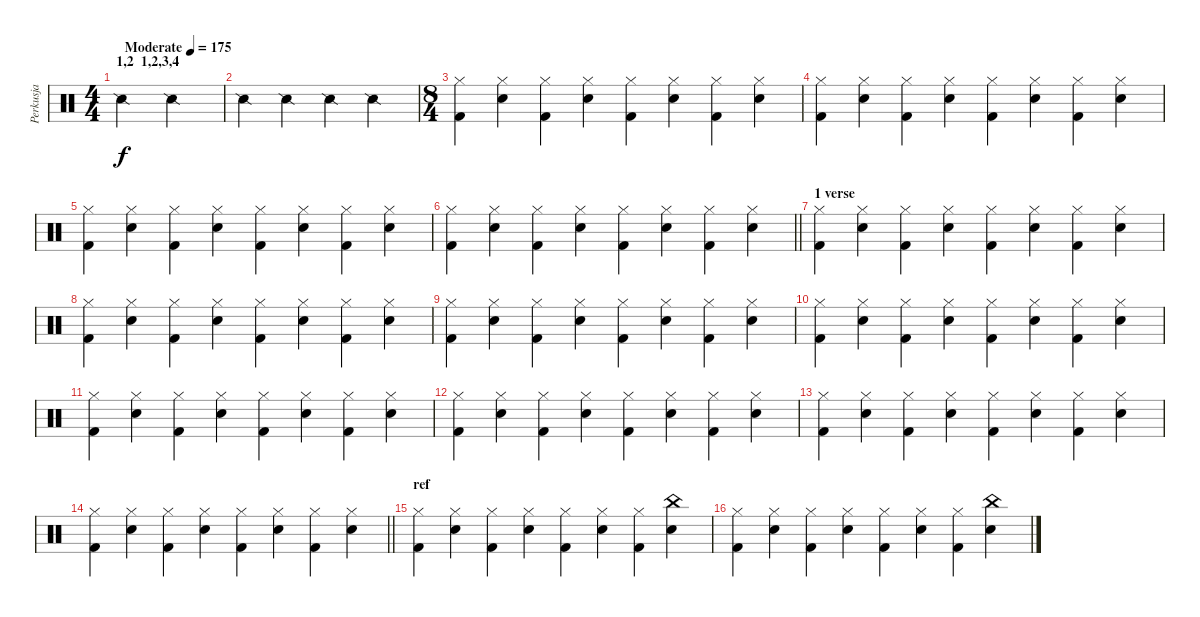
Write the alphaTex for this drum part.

\track ("Perkusja" "Perkusja") {instrument percussion}
\staff {score}
\articulation defaults
\ts (4 4)
\section ("" "1,2  1,2,3,4")
\tempo (175 "Moderate")
\clef neutral
\ks c "Snare (side stick) 2".2{dy f} "Snare (side stick) 2".2
|
"Snare (side stick) 2".4 "Snare (side stick) 2".4 "Snare (side stick) 2".4 "Snare (side stick) 2".4 |
\ts (8 4)
("Hi-Hat (closed)" "Kick (hit) 2").4 ("Hi-Hat (closed)" "Electric Snare (hit)").4 ("Hi-Hat (closed)" "Kick (hit) 2").4 ("Hi-Hat (closed)" "Electric Snare (hit)").4 ("Hi-Hat (closed)" "Kick (hit) 2").4 ("Hi-Hat (closed)" "Electric Snare (hit)").4 ("Hi-Hat (closed)" "Kick (hit) 2").4 ("Hi-Hat (closed)" "Electric Snare (hit)").4 |
("Hi-Hat (closed)" "Kick (hit) 2").4 ("Hi-Hat (closed)" "Electric Snare (hit)").4 ("Hi-Hat (closed)" "Kick (hit) 2").4 ("Hi-Hat (closed)" "Electric Snare (hit)").4 ("Hi-Hat (closed)" "Kick (hit) 2").4 ("Hi-Hat (closed)" "Electric Snare (hit)").4 ("Hi-Hat (closed)" "Kick (hit) 2").4 ("Hi-Hat (closed)" "Electric Snare (hit)").4 |
("Hi-Hat (closed)" "Kick (hit) 2").4 ("Hi-Hat (closed)" "Electric Snare (hit)").4 ("Hi-Hat (closed)" "Kick (hit) 2").4 ("Hi-Hat (closed)" "Electric Snare (hit)").4 ("Hi-Hat (closed)" "Kick (hit) 2").4 ("Hi-Hat (closed)" "Electric Snare (hit)").4 ("Hi-Hat (closed)" "Kick (hit) 2").4 ("Hi-Hat (closed)" "Electric Snare (hit)").4 |
\barLineRight lightlight
("Hi-Hat (closed)" "Kick (hit) 2").4 ("Hi-Hat (closed)" "Electric Snare (hit)").4 ("Hi-Hat (closed)" "Kick (hit) 2").4 ("Hi-Hat (closed)" "Electric Snare (hit)").4 ("Hi-Hat (closed)" "Kick (hit) 2").4 ("Hi-Hat (closed)" "Electric Snare (hit)").4 ("Hi-Hat (closed)" "Kick (hit) 2").4 ("Hi-Hat (closed)" "Electric Snare (hit)").4 |
\section ("" "1 verse")
("Hi-Hat (closed)" "Kick (hit) 2").4 ("Hi-Hat (closed)" "Electric Snare (hit)").4 ("Hi-Hat (closed)" "Kick (hit) 2").4 ("Hi-Hat (closed)" "Electric Snare (hit)").4 ("Hi-Hat (closed)" "Kick (hit) 2").4 ("Hi-Hat (closed)" "Electric Snare (hit)").4 ("Hi-Hat (closed)" "Kick (hit) 2").4 ("Hi-Hat (closed)" "Electric Snare (hit)").4 |
("Hi-Hat (closed)" "Kick (hit) 2").4 ("Hi-Hat (closed)" "Electric Snare (hit)").4 ("Hi-Hat (closed)" "Kick (hit) 2").4 ("Hi-Hat (closed)" "Electric Snare (hit)").4 ("Hi-Hat (closed)" "Kick (hit) 2").4 ("Hi-Hat (closed)" "Electric Snare (hit)").4 ("Hi-Hat (closed)" "Kick (hit) 2").4 ("Hi-Hat (closed)" "Electric Snare (hit)").4 |
("Hi-Hat (closed)" "Kick (hit) 2").4 ("Hi-Hat (closed)" "Electric Snare (hit)").4 ("Hi-Hat (closed)" "Kick (hit) 2").4 ("Hi-Hat (closed)" "Electric Snare (hit)").4 ("Hi-Hat (closed)" "Kick (hit) 2").4 ("Hi-Hat (closed)" "Electric Snare (hit)").4 ("Hi-Hat (closed)" "Kick (hit) 2").4 ("Hi-Hat (closed)" "Electric Snare (hit)").4 |
("Hi-Hat (closed)" "Kick (hit) 2").4 ("Hi-Hat (closed)" "Electric Snare (hit)").4 ("Hi-Hat (closed)" "Kick (hit) 2").4 ("Hi-Hat (closed)" "Electric Snare (hit)").4 ("Hi-Hat (closed)" "Kick (hit) 2").4 ("Hi-Hat (closed)" "Electric Snare (hit)").4 ("Hi-Hat (closed)" "Kick (hit) 2").4 ("Hi-Hat (closed)" "Electric Snare (hit)").4 |
("Hi-Hat (closed)" "Kick (hit) 2").4 ("Hi-Hat (closed)" "Electric Snare (hit)").4 ("Hi-Hat (closed)" "Kick (hit) 2").4 ("Hi-Hat (closed)" "Electric Snare (hit)").4 ("Hi-Hat (closed)" "Kick (hit) 2").4 ("Hi-Hat (closed)" "Electric Snare (hit)").4 ("Hi-Hat (closed)" "Kick (hit) 2").4 ("Hi-Hat (closed)" "Electric Snare (hit)").4 |
("Hi-Hat (closed)" "Kick (hit) 2").4 ("Hi-Hat (closed)" "Electric Snare (hit)").4 ("Hi-Hat (closed)" "Kick (hit) 2").4 ("Hi-Hat (closed)" "Electric Snare (hit)").4 ("Hi-Hat (closed)" "Kick (hit) 2").4 ("Hi-Hat (closed)" "Electric Snare (hit)").4 ("Hi-Hat (closed)" "Kick (hit) 2").4 ("Hi-Hat (closed)" "Electric Snare (hit)").4 |
("Hi-Hat (closed)" "Kick (hit) 2").4 ("Hi-Hat (closed)" "Electric Snare (hit)").4 ("Hi-Hat (closed)" "Kick (hit) 2").4 ("Hi-Hat (closed)" "Electric Snare (hit)").4 ("Hi-Hat (closed)" "Kick (hit) 2").4 ("Hi-Hat (closed)" "Electric Snare (hit)").4 ("Hi-Hat (closed)" "Kick (hit) 2").4 ("Hi-Hat (closed)" "Electric Snare (hit)").4 |
\barLineRight lightlight
("Hi-Hat (closed)" "Kick (hit) 2").4 ("Hi-Hat (closed)" "Electric Snare (hit)").4 ("Hi-Hat (closed)" "Kick (hit) 2").4 ("Hi-Hat (closed)" "Electric Snare (hit)").4 ("Hi-Hat (closed)" "Kick (hit) 2").4 ("Hi-Hat (closed)" "Electric Snare (hit)").4 ("Hi-Hat (closed)" "Kick (hit) 2").4 ("Hi-Hat (closed)" "Electric Snare (hit)").4 |
\section ("" "ref")
("Hi-Hat (closed)" "Kick (hit) 2").4 ("Hi-Hat (closed)" "Electric Snare (hit)").4 ("Hi-Hat (closed)" "Kick (hit) 2").4 ("Hi-Hat (closed)" "Electric Snare (hit)").4 ("Hi-Hat (closed)" "Kick (hit) 2").4 ("Hi-Hat (closed)" "Electric Snare (hit)").4 ("Hi-Hat (closed)" "Kick (hit) 2").4 ("China (hit)" "Electric Snare (hit)").4 |
("Hi-Hat (closed)" "Kick (hit) 2").4 ("Hi-Hat (closed)" "Electric Snare (hit)").4 ("Hi-Hat (closed)" "Kick (hit) 2").4 ("Hi-Hat (closed)" "Electric Snare (hit)").4 ("Hi-Hat (closed)" "Kick (hit) 2").4 ("Hi-Hat (closed)" "Electric Snare (hit)").4 ("Hi-Hat (closed)" "Kick (hit) 2").4 ("China (hit)" "Electric Snare (hit)").4
